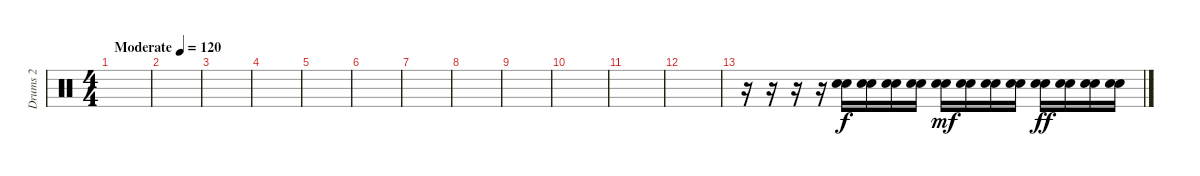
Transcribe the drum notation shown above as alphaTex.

\track ("Drums 2" "Drums 2") {instrument percussion}
\staff {score}
\articulation defaults
\ts (4 4)
\tempo (120 "Moderate")
\clef neutral
\ks c
|
|
|
|
|
|
|
|
|
|
|
|
r.16 r.16 r.16 r.16 ("Snare (hit) 2" "Snare (hit)").16 ("Snare (hit) 2" "Snare (hit)").16 ("Snare (hit) 2" "Snare (hit)").16 ("Snare (hit) 2" "Snare (hit)").16 ("Snare (hit) 2" "Snare (hit)").16{dy mf} ("Snare (hit) 2" "Snare (hit)").16 ("Snare (hit) 2" "Snare (hit)").16 ("Snare (hit) 2" "Snare (hit)").16 ("Snare (hit) 2" "Snare (hit)").16{dy ff} ("Snare (hit) 2" "Snare (hit)").16 ("Snare (hit) 2" "Snare (hit)").16 ("Snare (hit) 2" "Snare (hit)").16
